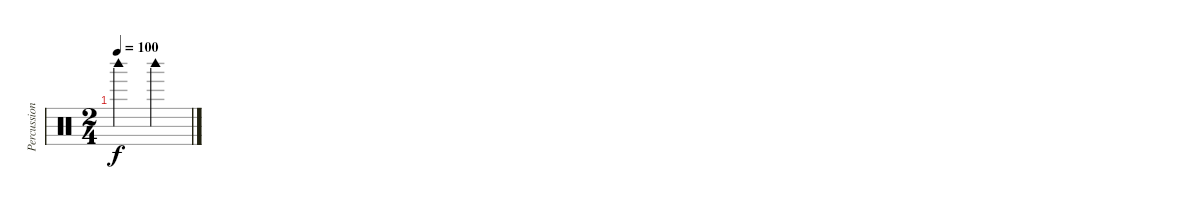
\track ("Percussion" "Percussion") {instrument percussion}
\staff {score}
\articulation defaults
\ts (2 4)
\tempo 100
\clef neutral
\ks c "Woodblock high (hit)".4{dy f} "Woodblock high (hit)".4
